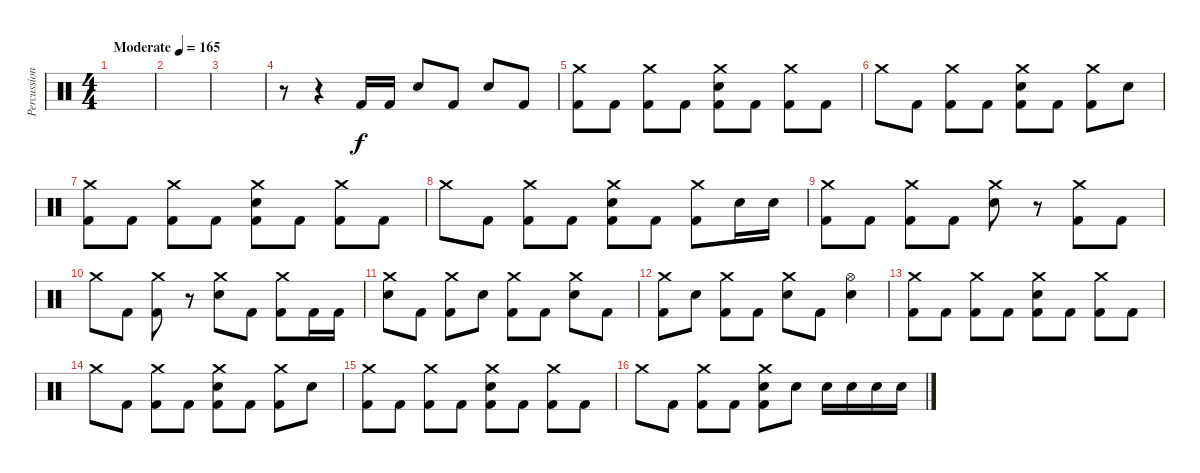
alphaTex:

\track ("Percussion" "Percussion") {instrument percussion}
\staff {score}
\articulation defaults
\ts (4 4)
\tempo (165 "Moderate")
\clef neutral
\ks c
|
|
|
r.8 r.4 "Kick (hit) 2".16 "Kick (hit) 2".16 "Snare (hit) 2".8 "Kick (hit) 2".8 "Snare (hit) 2".8 "Kick (hit) 2".8 |
("Crash medium (hit)" "Kick (hit) 2").8 "Kick (hit) 2".8 ("Crash medium (hit)" "Kick (hit) 2").8 "Kick (hit) 2".8 ("Crash medium (hit)" "Snare (hit) 2" "Kick (hit) 2").8 "Kick (hit) 2".8 ("Crash medium (hit)" "Kick (hit) 2").8 "Kick (hit) 2".8 |
"Crash medium (hit)".8 "Kick (hit) 2".8 ("Crash medium (hit)" "Kick (hit) 2").8 "Kick (hit) 2".8 ("Crash medium (hit)" "Snare (hit) 2" "Kick (hit) 2").8 "Kick (hit) 2".8 ("Crash medium (hit)" "Kick (hit) 2").8 "Snare (hit) 2".8 |
("Crash medium (hit)" "Kick (hit) 2").8 "Kick (hit) 2".8 ("Crash medium (hit)" "Kick (hit) 2").8 "Kick (hit) 2".8 ("Crash medium (hit)" "Snare (hit) 2" "Kick (hit) 2").8 "Kick (hit) 2".8 ("Crash medium (hit)" "Kick (hit) 2").8 "Kick (hit) 2".8 |
"Crash medium (hit)".8 "Kick (hit) 2".8 ("Crash medium (hit)" "Kick (hit) 2").8 "Kick (hit) 2".8 ("Crash medium (hit)" "Snare (hit) 2" "Kick (hit) 2").8 "Kick (hit) 2".8 ("Crash medium (hit)" "Kick (hit) 2").8 "Snare (hit) 2".16 "Snare (hit) 2".16 |
("Crash medium (hit)" "Kick (hit) 2").8 "Kick (hit) 2".8 ("Crash medium (hit)" "Kick (hit) 2").8 "Kick (hit) 2".8 ("Crash medium (hit)" "Snare (hit) 2").8 r.8 ("Crash medium (hit)" "Kick (hit) 2").8 "Kick (hit) 2".8 |
"Crash medium (hit)".8 "Kick (hit) 2".8 ("Crash medium (hit)" "Kick (hit) 2").8 r.8 ("Crash medium (hit)" "Snare (hit) 2").8 "Kick (hit) 2".8 ("Crash medium (hit)" "Kick (hit) 2").8 "Kick (hit) 2".16 "Kick (hit) 2".16 |
("Crash medium (hit)" "Snare (hit) 2").8 "Kick (hit) 2".8 ("Crash medium (hit)" "Kick (hit) 2").8 "Snare (hit) 2".8 ("Crash medium (hit)" "Kick (hit) 2").8 "Kick (hit) 2".8 ("Crash medium (hit)" "Snare (hit) 2").8 "Kick (hit) 2".8 |
("Crash medium (hit)" "Kick (hit) 2").8 "Snare (hit) 2".8 ("Crash medium (hit)" "Kick (hit) 2").8 "Kick (hit) 2".8 ("Crash medium (hit)" "Snare (hit) 2").8 "Kick (hit) 2".8 ("Hi-Hat (open)" "Snare (hit) 2").4 |
("Crash medium (hit)" "Kick (hit) 2").8 "Kick (hit) 2".8 ("Crash medium (hit)" "Kick (hit) 2").8 "Kick (hit) 2".8 ("Crash medium (hit)" "Snare (hit) 2" "Kick (hit) 2").8 "Kick (hit) 2".8 ("Crash medium (hit)" "Kick (hit) 2").8 "Kick (hit) 2".8 |
"Crash medium (hit)".8 "Kick (hit) 2".8 ("Crash medium (hit)" "Kick (hit) 2").8 "Kick (hit) 2".8 ("Crash medium (hit)" "Snare (hit) 2" "Kick (hit) 2").8 "Kick (hit) 2".8 ("Crash medium (hit)" "Kick (hit) 2").8 "Snare (hit) 2".8 |
("Crash medium (hit)" "Kick (hit) 2").8 "Kick (hit) 2".8 ("Crash medium (hit)" "Kick (hit) 2").8 "Kick (hit) 2".8 ("Crash medium (hit)" "Snare (hit) 2" "Kick (hit) 2").8 "Kick (hit) 2".8 ("Crash medium (hit)" "Kick (hit) 2").8 "Kick (hit) 2".8 |
"Crash medium (hit)".8 "Kick (hit) 2".8 ("Crash medium (hit)" "Kick (hit) 2").8 "Kick (hit) 2".8 ("Crash medium (hit)" "Snare (hit) 2" "Kick (hit) 2").8 "Snare (hit) 2".8 "Snare (hit) 2".16 "Snare (hit) 2".16 "Snare (hit) 2".16 "Snare (hit) 2".16
